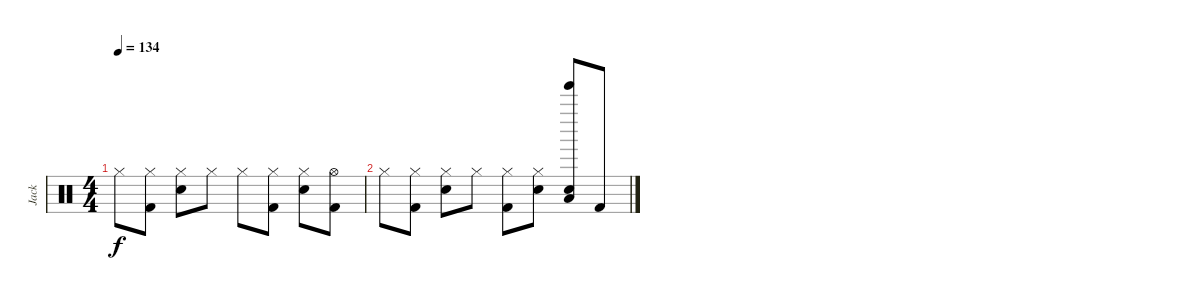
\track ("Jack" "Jack") {instrument percussion}
\staff {score}
\articulation defaults
\ts (4 4)
\tempo 134
\clef neutral
\ks c "Hi-Hat (closed)".8{dy f}
("Hi-Hat (closed)" "Kick (hit) 2").8 ("Hi-Hat (closed)" "Electric Snare (hit)").8 "Hi-Hat (closed)".8 "Hi-Hat (closed)".8 ("Hi-Hat (closed)" "Kick (hit) 2").8 ("Hi-Hat (closed)" "Electric Snare (hit)").8 ("Hi-Hat (open)" "Kick (hit) 2").8 |
"Hi-Hat (closed)".8 ("Hi-Hat (closed)" "Kick (hit) 2").8 ("Hi-Hat (closed)" "Electric Snare (hit)").8 "Hi-Hat (closed)".8 ("Hi-Hat (closed)" "Kick (hit) 2").8 ("Hi-Hat (closed)" "Electric Snare (hit)").8 ("Tinkle Bell (hit)" "Electric Snare (hit)" "Low Floor Tom (hit)").8 "Kick (hit) 2".8
